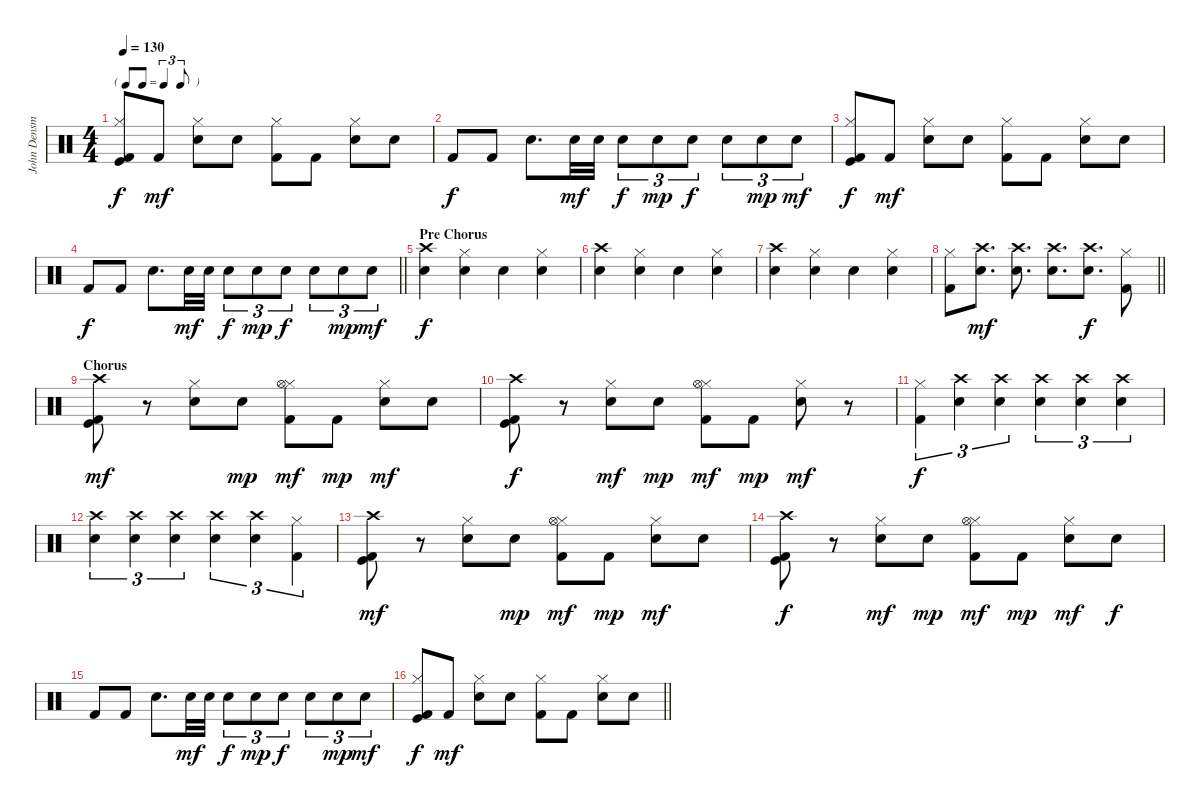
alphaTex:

\track ("John Densmore" "John Densm") {instrument percussion}
\staff {score}
\articulation defaults
\ts (4 4)
\tf triplet8th
\tempo 130
\clef neutral
\ks c
("Kick (hit) 2" "Hi-Hat (closed)" "Kick (hit)").8{dy f} "Kick (hit) 2".8{dy mf} ("Electric Snare (hit)" "Hi-Hat (closed)").8 "Electric Snare (hit)".8 ("Kick (hit) 2" "Hi-Hat (closed)").8 "Kick (hit) 2".8 ("Electric Snare (hit)" "Hi-Hat (closed)").8 "Electric Snare (hit)".8 |
"Kick (hit) 2".8{dy f} "Kick (hit) 2".8 "Electric Snare (hit)".8{d} "Snare (hit) 2".32{dy mf} "Electric Snare (hit)".32 "Electric Snare (hit)".8{tu (3 2) dy f} "Electric Snare (hit)".8{tu (3 2) dy mp} "Electric Snare (hit)".8{tu (3 2) dy f} "Snare (hit) 2".8{tu (3 2)} "Snare (hit) 2".8{tu (3 2) dy mp} "Snare (hit) 2".8{tu (3 2) dy mf} |
("Kick (hit) 2" "Hi-Hat (closed)" "Kick (hit)").8{dy f} "Kick (hit) 2".8{dy mf} ("Electric Snare (hit)" "Hi-Hat (closed)").8 "Electric Snare (hit)".8 ("Kick (hit) 2" "Hi-Hat (closed)").8 "Kick (hit) 2".8 ("Electric Snare (hit)" "Hi-Hat (closed)").8 "Electric Snare (hit)".8 |
\barLineRight lightlight "Kick (hit) 2".8{dy f} "Kick (hit) 2".8 "Electric Snare (hit)".8{d} "Snare (hit) 2".32{dy mf} "Electric Snare (hit)".32 "Electric Snare (hit)".8{tu (3 2) dy f} "Electric Snare (hit)".8{tu (3 2) dy mp} "Electric Snare (hit)".8{tu (3 2) dy f} "Snare (hit) 2".8{tu (3 2)} "Snare (hit) 2".8{tu (3 2) dy mp} "Snare (hit) 2".8{tu (3 2) dy mf}
|
\section ("" "Pre Chorus")
("Electric Snare (hit)" "Crash high (hit)").4{dy f} ("Snare (hit) 2" "Hi-Hat (closed)").4 "Electric Snare (hit)".4 ("Snare (hit) 2" "Hi-Hat (closed)").4 |
("Electric Snare (hit)" "Crash high (hit)").4 ("Snare (hit) 2" "Hi-Hat (closed)").4 "Electric Snare (hit)".4 ("Snare (hit) 2" "Hi-Hat (closed)").4 |
("Electric Snare (hit)" "Crash high (hit)").4 ("Electric Snare (hit)" "Hi-Hat (closed)").4 "Electric Snare (hit)".4 ("Snare (hit) 2" "Hi-Hat (closed)").4 |
\barLineRight lightlight
("Kick (hit) 2" "Hi-Hat (closed)").8 ("Electric Snare (hit)" "Crash high (hit)").8{d dy mf} ("Electric Snare (hit)" "Crash high (hit)").8{d} ("Electric Snare (hit)" "Crash high (hit)").8{d} ("Electric Snare (hit)" "Crash high (hit)").8{d dy f} ("Kick (hit) 2" "Hi-Hat (closed)").8 |
\section ("" "Chorus")
("Kick (hit) 2" "Kick (hit)" "Crash high (hit)").8{dy mf} r.8 ("Electric Snare (hit)" "Hi-Hat (closed)").8 "Electric Snare (hit)".8{dy mp} ("Kick (hit) 2" "Hi-Hat (closed)" "Hi-Hat (open)").8{dy mf} "Kick (hit) 2".8{dy mp} ("Electric Snare (hit)" "Hi-Hat (closed)").8{dy mf} "Electric Snare (hit)".8 |
("Kick (hit) 2" "Kick (hit)" "Crash high (hit)").8{dy f} r.8 ("Electric Snare (hit)" "Hi-Hat (closed)").8{dy mf} "Electric Snare (hit)".8{dy mp} ("Kick (hit) 2" "Hi-Hat (closed)" "Hi-Hat (open)").8{dy mf} "Kick (hit) 2".8{dy mp} ("Electric Snare (hit)" "Hi-Hat (closed)").8{dy mf} r.8 |
("Kick (hit) 2" "Hi-Hat (closed)").4{tu (3 2) dy f} ("Electric Snare (hit)" "Crash high (hit)").4{tu (3 2)} ("Electric Snare (hit)" "Crash high (hit)").4{tu (3 2)} ("Electric Snare (hit)" "Crash high (hit)").4{tu (3 2)} ("Electric Snare (hit)" "Crash high (hit)").4{tu (3 2)} ("Electric Snare (hit)" "Crash high (hit)").4{tu (3 2)} |
("Electric Snare (hit)" "Crash high (hit)").4{tu (3 2)} ("Electric Snare (hit)" "Crash high (hit)").4{tu (3 2)} ("Electric Snare (hit)" "Crash high (hit)").4{tu (3 2)} ("Electric Snare (hit)" "Crash high (hit)").4{tu (3 2)} ("Electric Snare (hit)" "Crash high (hit)").4{tu (3 2)} ("Kick (hit) 2" "Hi-Hat (closed)").4{tu (3 2)} |
("Kick (hit) 2" "Kick (hit)" "Crash high (hit)").8{dy mf} r.8 ("Electric Snare (hit)" "Hi-Hat (closed)").8 "Electric Snare (hit)".8{dy mp} ("Kick (hit) 2" "Hi-Hat (closed)" "Hi-Hat (open)").8{dy mf} "Kick (hit) 2".8{dy mp} ("Electric Snare (hit)" "Hi-Hat (closed)").8{dy mf} "Electric Snare (hit)".8 |
("Kick (hit) 2" "Kick (hit)" "Crash high (hit)").8{dy f} r.8 ("Electric Snare (hit)" "Hi-Hat (closed)").8{dy mf} "Electric Snare (hit)".8{dy mp} ("Kick (hit) 2" "Hi-Hat (closed)" "Hi-Hat (open)").8{dy mf} "Kick (hit) 2".8{dy mp} ("Electric Snare (hit)" "Hi-Hat (closed)").8{dy mf} "Electric Snare (hit)".8{dy f} |
"Kick (hit) 2".8 "Kick (hit) 2".8 "Electric Snare (hit)".8{d} "Snare (hit) 2".32{dy mf} "Electric Snare (hit)".32 "Electric Snare (hit)".8{tu (3 2) dy f} "Electric Snare (hit)".8{tu (3 2) dy mp} "Electric Snare (hit)".8{tu (3 2) dy f} "Snare (hit) 2".8{tu (3 2)} "Snare (hit) 2".8{tu (3 2) dy mp} "Snare (hit) 2".8{tu (3 2) dy mf} |
\barLineRight lightlight
("Kick (hit) 2" "Hi-Hat (closed)" "Kick (hit)").8{dy f} "Kick (hit) 2".8{dy mf} ("Electric Snare (hit)" "Hi-Hat (closed)").8 "Electric Snare (hit)".8 ("Kick (hit) 2" "Hi-Hat (closed)").8 "Kick (hit) 2".8 ("Electric Snare (hit)" "Hi-Hat (closed)").8 "Electric Snare (hit)".8
